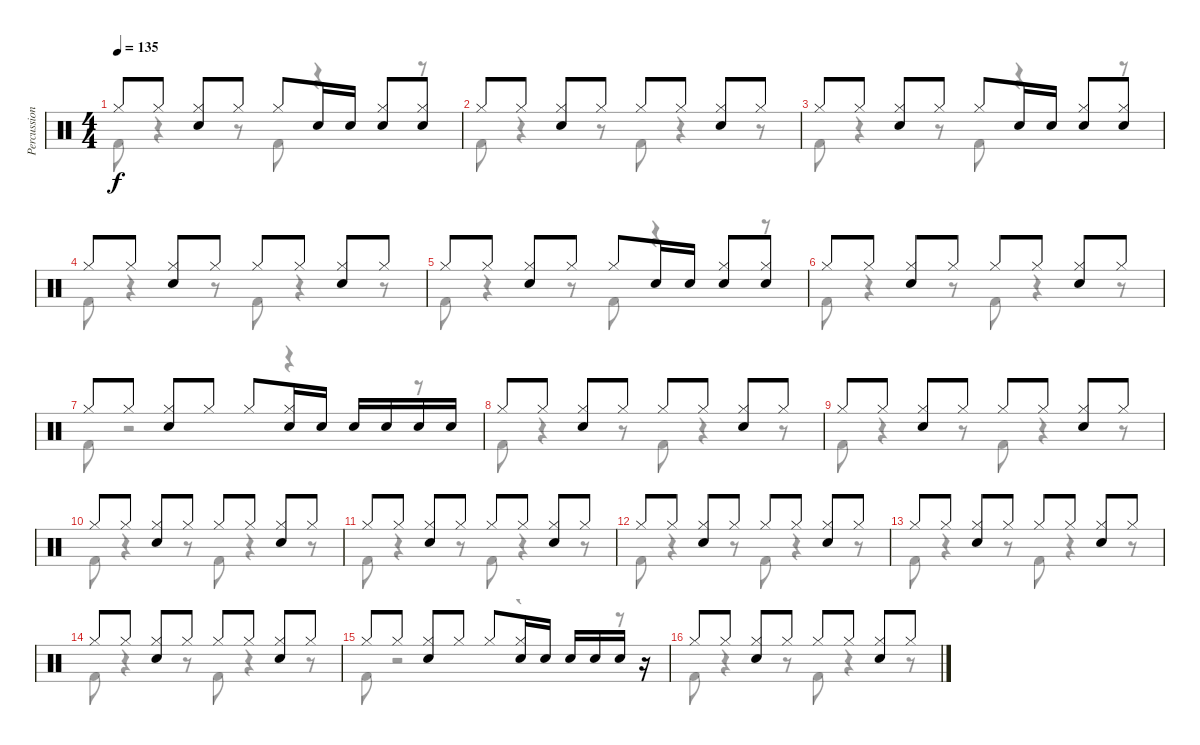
\track ("Percussion" "Percussion") {instrument percussion}
\staff {score}
\articulation defaults
\voice
\ts (4 4)
\tempo 135
\clef neutral
\ks c "Hi-Hat (closed)".8{dy f} "Hi-Hat (closed)".8
("Hi-Hat (closed)" "Snare (hit) 2").8 "Hi-Hat (closed)".8 "Hi-Hat (closed)".8 "Snare (hit) 2".16 "Snare (hit) 2".16 ("Hi-Hat (closed)" "Snare (hit) 2").8 ("Hi-Hat (closed)" "Snare (hit) 2").8 |
"Hi-Hat (closed)".8 "Hi-Hat (closed)".8 ("Hi-Hat (closed)" "Snare (hit) 2").8 "Hi-Hat (closed)".8 "Hi-Hat (closed)".8 "Hi-Hat (closed)".8 ("Hi-Hat (closed)" "Snare (hit) 2").8 "Hi-Hat (closed)".8 |
"Hi-Hat (closed)".8 "Hi-Hat (closed)".8 ("Hi-Hat (closed)" "Snare (hit) 2").8 "Hi-Hat (closed)".8 "Hi-Hat (closed)".8 "Snare (hit) 2".16 "Snare (hit) 2".16 ("Hi-Hat (closed)" "Snare (hit) 2").8 ("Hi-Hat (closed)" "Snare (hit) 2").8 |
"Hi-Hat (closed)".8 "Hi-Hat (closed)".8 ("Hi-Hat (closed)" "Snare (hit) 2").8 "Hi-Hat (closed)".8 "Hi-Hat (closed)".8 "Hi-Hat (closed)".8 ("Hi-Hat (closed)" "Snare (hit) 2").8 "Hi-Hat (closed)".8 |
"Hi-Hat (closed)".8 "Hi-Hat (closed)".8 ("Hi-Hat (closed)" "Snare (hit) 2").8 "Hi-Hat (closed)".8 "Hi-Hat (closed)".8 "Snare (hit) 2".16 "Snare (hit) 2".16 ("Hi-Hat (closed)" "Snare (hit) 2").8 ("Hi-Hat (closed)" "Snare (hit) 2").8 |
"Hi-Hat (closed)".8 "Hi-Hat (closed)".8 ("Hi-Hat (closed)" "Snare (hit) 2").8 "Hi-Hat (closed)".8 "Hi-Hat (closed)".8 "Hi-Hat (closed)".8 ("Hi-Hat (closed)" "Snare (hit) 2").8 "Hi-Hat (closed)".8 |
"Hi-Hat (closed)".8 "Hi-Hat (closed)".8 ("Hi-Hat (closed)" "Snare (hit) 2").8 "Hi-Hat (closed)".8 "Hi-Hat (closed)".8 ("Hi-Hat (closed)" "Snare (hit) 2").16 "Snare (hit) 2".16 "Snare (hit) 2".16 "Snare (hit) 2".16 "Snare (hit) 2".16 "Snare (hit) 2".16 |
"Hi-Hat (closed)".8 "Hi-Hat (closed)".8 ("Hi-Hat (closed)" "Snare (hit) 2").8 "Hi-Hat (closed)".8 "Hi-Hat (closed)".8 "Hi-Hat (closed)".8 ("Hi-Hat (closed)" "Snare (hit) 2").8 "Hi-Hat (closed)".8 |
"Hi-Hat (closed)".8 "Hi-Hat (closed)".8 ("Hi-Hat (closed)" "Snare (hit) 2").8 "Hi-Hat (closed)".8 "Hi-Hat (closed)".8 "Hi-Hat (closed)".8 ("Hi-Hat (closed)" "Snare (hit) 2").8 "Hi-Hat (closed)".8 |
"Hi-Hat (closed)".8 "Hi-Hat (closed)".8 ("Hi-Hat (closed)" "Snare (hit) 2").8 "Hi-Hat (closed)".8 "Hi-Hat (closed)".8 "Hi-Hat (closed)".8 ("Hi-Hat (closed)" "Snare (hit) 2").8 "Hi-Hat (closed)".8 |
"Hi-Hat (closed)".8 "Hi-Hat (closed)".8 ("Hi-Hat (closed)" "Snare (hit) 2").8 "Hi-Hat (closed)".8 "Hi-Hat (closed)".8 "Hi-Hat (closed)".8 ("Hi-Hat (closed)" "Snare (hit) 2").8 "Hi-Hat (closed)".8 |
"Hi-Hat (closed)".8 "Hi-Hat (closed)".8 ("Hi-Hat (closed)" "Snare (hit) 2").8 "Hi-Hat (closed)".8 "Hi-Hat (closed)".8 "Hi-Hat (closed)".8 ("Hi-Hat (closed)" "Snare (hit) 2").8 "Hi-Hat (closed)".8 |
"Hi-Hat (closed)".8 "Hi-Hat (closed)".8 ("Hi-Hat (closed)" "Snare (hit) 2").8 "Hi-Hat (closed)".8 "Hi-Hat (closed)".8 "Hi-Hat (closed)".8 ("Hi-Hat (closed)" "Snare (hit) 2").8 "Hi-Hat (closed)".8 |
"Hi-Hat (closed)".8 "Hi-Hat (closed)".8 ("Hi-Hat (closed)" "Snare (hit) 2").8 "Hi-Hat (closed)".8 "Hi-Hat (closed)".8 "Hi-Hat (closed)".8 ("Hi-Hat (closed)" "Snare (hit) 2").8 "Hi-Hat (closed)".8 |
"Hi-Hat (closed)".8 "Hi-Hat (closed)".8 ("Hi-Hat (closed)" "Snare (hit) 2").8 "Hi-Hat (closed)".8 "Hi-Hat (closed)".8 ("Hi-Hat (closed)" "Snare (hit) 2").16 "Snare (hit) 2".16 "Snare (hit) 2".16 "Snare (hit) 2".16 "Snare (hit) 2".16 r.16 |
"Hi-Hat (closed)".8 "Hi-Hat (closed)".8 ("Hi-Hat (closed)" "Snare (hit) 2").8 "Hi-Hat (closed)".8 "Hi-Hat (closed)".8 "Hi-Hat (closed)".8 ("Hi-Hat (closed)" "Snare (hit) 2").8 "Hi-Hat (closed)".8
\voice
\clef neutral
\ottava regular
\simile none
\ks c "Kick (hit) 2".8{dy f}
r.4 r.8 "Kick (hit) 2".8 r.4 r.8 |
"Kick (hit) 2".8 r.4 r.8 "Kick (hit) 2".8 r.4 r.8 |
"Kick (hit) 2".8 r.4 r.8 "Kick (hit) 2".8 r.4 r.8 |
"Kick (hit) 2".8 r.4 r.8 "Kick (hit) 2".8 r.4 r.8 |
"Kick (hit) 2".8 r.4 r.8 "Kick (hit) 2".8 r.4 r.8 |
"Kick (hit) 2".8 r.4 r.8 "Kick (hit) 2".8 r.4 r.8 |
"Kick (hit) 2".8 r.2 r.4 r.8 |
"Kick (hit) 2".8 r.4 r.8 "Kick (hit) 2".8 r.4 r.8 |
"Kick (hit) 2".8 r.4 r.8 "Kick (hit) 2".8 r.4 r.8 |
"Kick (hit) 2".8 r.4 r.8 "Kick (hit) 2".8 r.4 r.8 |
"Kick (hit) 2".8 r.4 r.8 "Kick (hit) 2".8 r.4 r.8 |
"Kick (hit) 2".8 r.4 r.8 "Kick (hit) 2".8 r.4 r.8 |
"Kick (hit) 2".8 r.4 r.8 "Kick (hit) 2".8 r.4 r.8 |
"Kick (hit) 2".8 r.4 r.8 "Kick (hit) 2".8 r.4 r.8 |
"Kick (hit) 2".8 r.2 r.4 r.8 |
"Kick (hit) 2".8 r.4 r.8 "Kick (hit) 2".8 r.4 r.8
